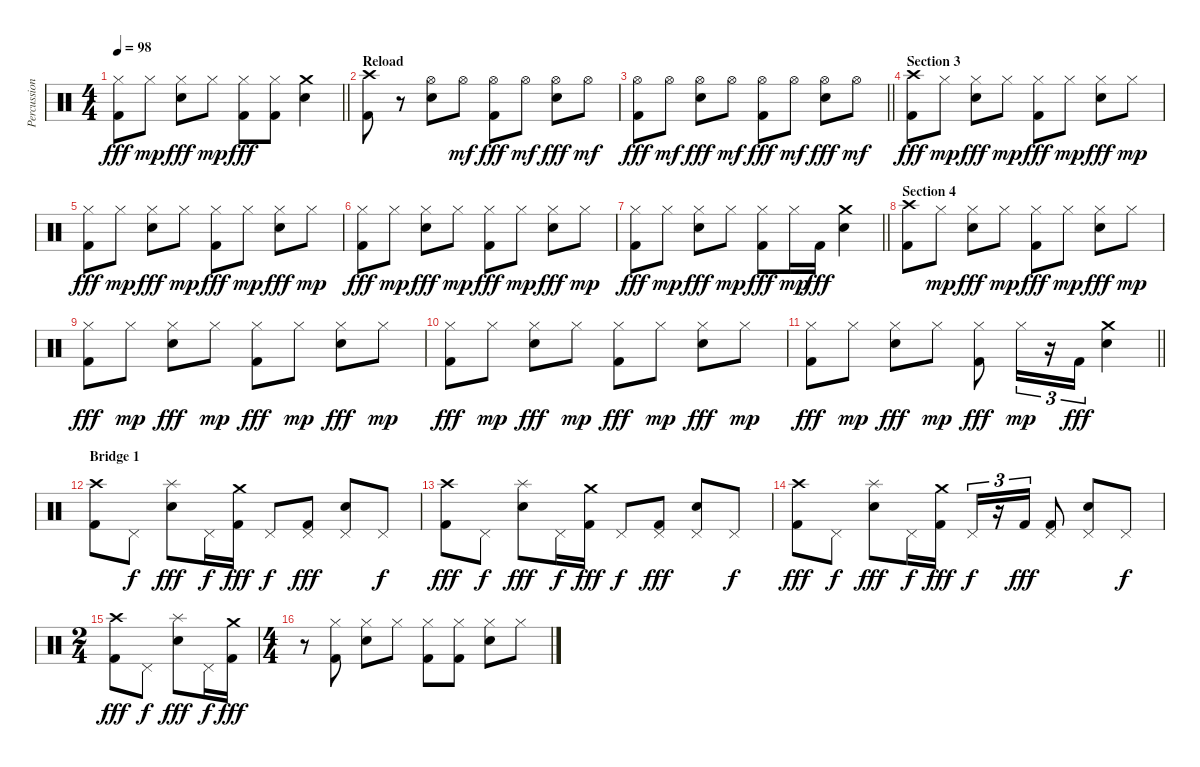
\track ("Percussion" "Percussion") {instrument percussion}
\staff {score}
\articulation defaults
\ts (4 4)
\tempo 98
\clef neutral
\barLineRight lightlight
\ks c
("Hi-Hat (closed)" "Kick (hit) 2").8{dy fff} "Hi-Hat (closed)".8{dy mp} ("Hi-Hat (closed)" "Snare (hit) 2").8{dy fff} "Hi-Hat (closed)".8{dy mp} ("Hi-Hat (closed)" "Kick (hit) 2").8{dy fff} ("Hi-Hat (closed)" "Kick (hit) 2").8 ("Crash medium (hit)" "Snare (hit) 2").4 |
\section ("" "Reload")
("Crash high (hit)" "Kick (hit) 2").8 r.8 ("Hi-Hat (open)" "Snare (hit) 2").8 "Hi-Hat (open)".8{dy mf} ("Hi-Hat (open)" "Kick (hit) 2").8{dy fff} "Hi-Hat (open)".8{dy mf} ("Hi-Hat (open)" "Snare (hit) 2").8{dy fff} "Hi-Hat (open)".8{dy mf} |
\barLineRight lightlight
("Hi-Hat (open)" "Kick (hit) 2").8{dy fff} "Hi-Hat (open)".8{dy mf} ("Hi-Hat (open)" "Snare (hit) 2").8{dy fff} "Hi-Hat (open)".8{dy mf} ("Hi-Hat (open)" "Kick (hit) 2").8{dy fff} "Hi-Hat (open)".8{dy mf} ("Hi-Hat (open)" "Snare (hit) 2").8{dy fff} "Hi-Hat (open)".8{dy mf} |
\section ("" "Section 3")
("Crash high (hit)" "Kick (hit) 2").8{dy fff} "Hi-Hat (closed)".8{dy mp} ("Hi-Hat (closed)" "Snare (hit) 2").8{dy fff} "Hi-Hat (closed)".8{dy mp} ("Hi-Hat (closed)" "Kick (hit) 2").8{dy fff} "Hi-Hat (closed)".8{dy mp} ("Hi-Hat (closed)" "Snare (hit) 2").8{dy fff} "Hi-Hat (closed)".8{dy mp} |
("Hi-Hat (closed)" "Kick (hit) 2").8{dy fff} "Hi-Hat (closed)".8{dy mp} ("Hi-Hat (closed)" "Snare (hit) 2").8{dy fff} "Hi-Hat (closed)".8{dy mp} ("Hi-Hat (closed)" "Kick (hit) 2").8{dy fff} "Hi-Hat (closed)".8{dy mp} ("Hi-Hat (closed)" "Snare (hit) 2").8{dy fff} "Hi-Hat (closed)".8{dy mp} |
("Hi-Hat (closed)" "Kick (hit) 2").8{dy fff} "Hi-Hat (closed)".8{dy mp} ("Hi-Hat (closed)" "Snare (hit) 2").8{dy fff} "Hi-Hat (closed)".8{dy mp} ("Hi-Hat (closed)" "Kick (hit) 2").8{dy fff} "Hi-Hat (closed)".8{dy mp} ("Hi-Hat (closed)" "Snare (hit) 2").8{dy fff} "Hi-Hat (closed)".8{dy mp} |
\barLineRight lightlight
("Hi-Hat (closed)" "Kick (hit) 2").8{dy fff} "Hi-Hat (closed)".8{dy mp} ("Hi-Hat (closed)" "Snare (hit) 2").8{dy fff} "Hi-Hat (closed)".8{dy mp} ("Hi-Hat (closed)" "Kick (hit) 2").8{dy fff} "Hi-Hat (closed)".16{dy mp} "Kick (hit) 2".16{dy fff} ("Crash medium (hit)" "Snare (hit) 2").4 |
\section ("" "Section 4")
("Crash high (hit)" "Kick (hit) 2").8 "Hi-Hat (closed)".8{dy mp} ("Hi-Hat (closed)" "Snare (hit) 2").8{dy fff} "Hi-Hat (closed)".8{dy mp} ("Hi-Hat (closed)" "Kick (hit) 2").8{dy fff} "Hi-Hat (closed)".8{dy mp} ("Hi-Hat (closed)" "Snare (hit) 2").8{dy fff} "Hi-Hat (closed)".8{dy mp} |
("Hi-Hat (closed)" "Kick (hit) 2").8{dy fff} "Hi-Hat (closed)".8{dy mp} ("Hi-Hat (closed)" "Snare (hit) 2").8{dy fff} "Hi-Hat (closed)".8{dy mp} ("Hi-Hat (closed)" "Kick (hit) 2").8{dy fff} "Hi-Hat (closed)".8{dy mp} ("Hi-Hat (closed)" "Snare (hit) 2").8{dy fff} "Hi-Hat (closed)".8{dy mp} |
("Hi-Hat (closed)" "Kick (hit) 2").8{dy fff} "Hi-Hat (closed)".8{dy mp} ("Hi-Hat (closed)" "Snare (hit) 2").8{dy fff} "Hi-Hat (closed)".8{dy mp} ("Hi-Hat (closed)" "Kick (hit) 2").8{dy fff} "Hi-Hat (closed)".8{dy mp} ("Hi-Hat (closed)" "Snare (hit) 2").8{dy fff} "Hi-Hat (closed)".8{dy mp} |
\barLineRight lightlight
("Hi-Hat (closed)" "Kick (hit) 2").8{dy fff} "Hi-Hat (closed)".8{dy mp} ("Hi-Hat (closed)" "Snare (hit) 2").8{dy fff} "Hi-Hat (closed)".8{dy mp} ("Hi-Hat (closed)" "Kick (hit) 2").8{dy fff} "Hi-Hat (closed)".16{tu (3 2) dy mp} r.16{tu (3 2)} "Kick (hit) 2".16{tu (3 2) dy fff} ("Crash medium (hit)" "Snare (hit) 2").4 |
\section ("" "Bridge 1")
("Crash high (hit)" "Kick (hit) 2").8 "Pedal Hi-Hat (hit)".8{dy f} ("Splash (hit)" "Snare (hit) 2").8{dy fff} "Pedal Hi-Hat (hit)".16{dy f} ("Crash medium (hit)" "Kick (hit) 2").16{dy fff} "Pedal Hi-Hat (hit)".8{dy f} ("Pedal Hi-Hat (hit)" "Kick (hit) 2").8{dy fff} ("Pedal Hi-Hat (hit)" "Snare (hit) 2").8 "Pedal Hi-Hat (hit)".8{dy f} |
("Crash high (hit)" "Kick (hit) 2").8{dy fff} "Pedal Hi-Hat (hit)".8{dy f} ("Splash (hit)" "Snare (hit) 2").8{dy fff} "Pedal Hi-Hat (hit)".16{dy f} ("Crash medium (hit)" "Kick (hit) 2").16{dy fff} "Pedal Hi-Hat (hit)".8{dy f} ("Pedal Hi-Hat (hit)" "Kick (hit) 2").8{dy fff} ("Pedal Hi-Hat (hit)" "Snare (hit) 2").8 "Pedal Hi-Hat (hit)".8{dy f} |
("Crash high (hit)" "Kick (hit) 2").8{dy fff} "Pedal Hi-Hat (hit)".8{dy f} ("Splash (hit)" "Snare (hit) 2").8{dy fff} "Pedal Hi-Hat (hit)".16{dy f} ("Crash medium (hit)" "Kick (hit) 2").16{dy fff} "Pedal Hi-Hat (hit)".16{tu (3 2) dy f} r.16{tu (3 2)} "Kick (hit) 2".16{tu (3 2) dy fff} ("Pedal Hi-Hat (hit)" "Kick (hit) 2").8 ("Pedal Hi-Hat (hit)" "Snare (hit) 2").8 "Pedal Hi-Hat (hit)".8{dy f} |
\ts (2 4)
("Crash high (hit)" "Kick (hit) 2").8{dy fff} "Pedal Hi-Hat (hit)".8{dy f} ("Splash (hit)" "Snare (hit) 2").8{dy fff} "Pedal Hi-Hat (hit)".16{dy f} ("Crash medium (hit)" "Kick (hit) 2").16{dy fff} |
\ts (4 4)
r.8 ("Hi-Hat (closed)" "Kick (hit) 2").8 ("Hi-Hat (closed)" "Snare (hit) 2").8 "Hi-Hat (closed)".8 ("Hi-Hat (closed)" "Kick (hit) 2").8 ("Hi-Hat (closed)" "Kick (hit) 2").8 ("Hi-Hat (closed)" "Snare (hit) 2").8 "Hi-Hat (closed)".8
